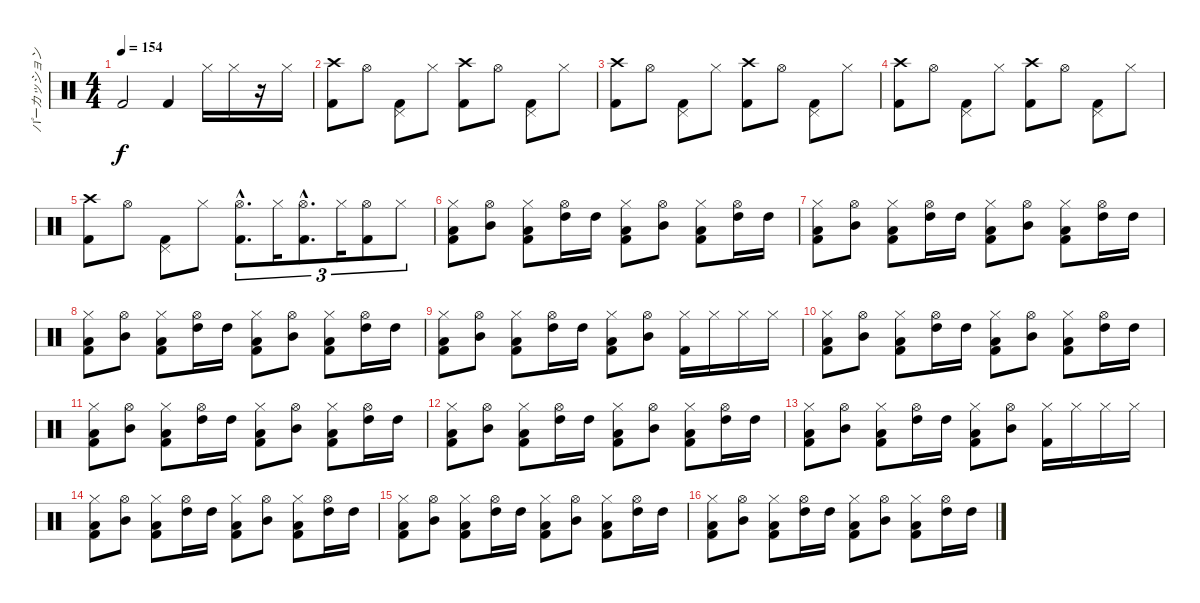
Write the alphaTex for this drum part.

\track ("パーカッション" "パーカッション") {instrument percussion}
\staff {score}
\articulation defaults
\ts (4 4)
\tempo 154
\clef neutral
\ks c "Kick (hit) 2".2{dy f} "Kick (hit) 2".4 "Hi-Hat (closed)".16 "Hi-Hat (closed)".16
r.16 "Hi-Hat (closed)".16 |
("Crash high (hit)" "Kick (hit) 2").8 "Hi-Hat (open)".8 ("Pedal Hi-Hat (hit)" "Kick (hit) 2").8 "Hi-Hat (closed)".8 ("Crash high (hit)" "Kick (hit) 2").8 "Hi-Hat (open)".8 ("Pedal Hi-Hat (hit)" "Kick (hit) 2").8 "Hi-Hat (closed)".8 |
("Crash high (hit)" "Kick (hit) 2").8 "Hi-Hat (open)".8 ("Pedal Hi-Hat (hit)" "Kick (hit) 2").8 "Hi-Hat (closed)".8 ("Crash high (hit)" "Kick (hit) 2").8 "Hi-Hat (open)".8 ("Pedal Hi-Hat (hit)" "Kick (hit) 2").8 "Hi-Hat (closed)".8 |
("Crash high (hit)" "Kick (hit) 2").8 "Hi-Hat (open)".8 ("Pedal Hi-Hat (hit)" "Kick (hit) 2").8 "Hi-Hat (closed)".8 ("Crash high (hit)" "Kick (hit) 2").8 "Hi-Hat (open)".8 ("Pedal Hi-Hat (hit)" "Kick (hit) 2").8 "Hi-Hat (closed)".8 |
("Crash high (hit)" "Kick (hit) 2").8 "Hi-Hat (open)".8 ("Pedal Hi-Hat (hit)" "Kick (hit) 2").8 "Hi-Hat (closed)".8 ("Hi-Hat (open)"{hac} "Kick (hit) 2"{hac}).8{d tu (3 2)} "Hi-Hat (closed)".16{tu (3 2)} ("Hi-Hat (open)"{hac} "Kick (hit) 2"{hac}).8{d tu (3 2)} "Hi-Hat (closed)".16{tu (3 2)} ("Hi-Hat (open)" "Kick (hit) 2").8{tu (3 2)} "Hi-Hat (closed)".8{tu (3 2)} |
("Hi-Hat (closed)" "Low Tom (hit)" "Kick (hit) 2").8 ("Hi-Hat (open)" "Mid Tom (hit)").8 ("Hi-Hat (closed)" "Low Tom (hit)" "Kick (hit) 2").8 ("Hi-Hat (open)" "High Tom (hit)").16 "High Tom (hit)".16 ("Hi-Hat (closed)" "Low Tom (hit)" "Kick (hit) 2").8 ("Hi-Hat (open)" "Mid Tom (hit)").8 ("Hi-Hat (closed)" "Low Tom (hit)" "Kick (hit) 2").8 ("Hi-Hat (open)" "High Tom (hit)").16 "High Tom (hit)".16 |
("Hi-Hat (closed)" "Low Tom (hit)" "Kick (hit) 2").8 ("Hi-Hat (open)" "Mid Tom (hit)").8 ("Hi-Hat (closed)" "Low Tom (hit)" "Kick (hit) 2").8 ("Hi-Hat (open)" "High Tom (hit)").16 "High Tom (hit)".16 ("Hi-Hat (closed)" "Low Tom (hit)" "Kick (hit) 2").8 ("Hi-Hat (open)" "Mid Tom (hit)").8 ("Hi-Hat (closed)" "Low Tom (hit)" "Kick (hit) 2").8 ("Hi-Hat (open)" "High Tom (hit)").16 "High Tom (hit)".16 |
("Hi-Hat (closed)" "Low Tom (hit)" "Kick (hit) 2").8 ("Hi-Hat (open)" "Mid Tom (hit)").8 ("Hi-Hat (closed)" "Low Tom (hit)" "Kick (hit) 2").8 ("Hi-Hat (open)" "High Tom (hit)").16 "High Tom (hit)".16 ("Hi-Hat (closed)" "Low Tom (hit)" "Kick (hit) 2").8 ("Hi-Hat (open)" "Mid Tom (hit)").8 ("Hi-Hat (closed)" "Low Tom (hit)" "Kick (hit) 2").8 ("Hi-Hat (open)" "High Tom (hit)").16 "High Tom (hit)".16 |
("Hi-Hat (closed)" "Low Tom (hit)" "Kick (hit) 2").8 ("Hi-Hat (open)" "Mid Tom (hit)").8 ("Hi-Hat (closed)" "Low Tom (hit)" "Kick (hit) 2").8 ("Hi-Hat (open)" "High Tom (hit)").16 "High Tom (hit)".16 ("Hi-Hat (closed)" "Low Tom (hit)" "Kick (hit) 2").8 ("Hi-Hat (open)" "Mid Tom (hit)").8 ("Hi-Hat (closed)" "Kick (hit) 2").16 "Hi-Hat (closed)".16 "Hi-Hat (closed)".16 "Hi-Hat (closed)".16 |
("Hi-Hat (closed)" "Low Tom (hit)" "Kick (hit) 2").8 ("Hi-Hat (open)" "Mid Tom (hit)").8 ("Hi-Hat (closed)" "Low Tom (hit)" "Kick (hit) 2").8 ("Hi-Hat (open)" "High Tom (hit)").16 "High Tom (hit)".16 ("Hi-Hat (closed)" "Low Tom (hit)" "Kick (hit) 2").8 ("Hi-Hat (open)" "Mid Tom (hit)").8 ("Hi-Hat (closed)" "Low Tom (hit)" "Kick (hit) 2").8 ("Hi-Hat (open)" "High Tom (hit)").16 "High Tom (hit)".16 |
("Hi-Hat (closed)" "Low Tom (hit)" "Kick (hit) 2").8 ("Hi-Hat (open)" "Mid Tom (hit)").8 ("Hi-Hat (closed)" "Low Tom (hit)" "Kick (hit) 2").8 ("Hi-Hat (open)" "High Tom (hit)").16 "High Tom (hit)".16 ("Hi-Hat (closed)" "Low Tom (hit)" "Kick (hit) 2").8 ("Hi-Hat (open)" "Mid Tom (hit)").8 ("Hi-Hat (closed)" "Low Tom (hit)" "Kick (hit) 2").8 ("Hi-Hat (open)" "High Tom (hit)").16 "High Tom (hit)".16 |
("Hi-Hat (closed)" "Low Tom (hit)" "Kick (hit) 2").8 ("Hi-Hat (open)" "Mid Tom (hit)").8 ("Hi-Hat (closed)" "Low Tom (hit)" "Kick (hit) 2").8 ("Hi-Hat (open)" "High Tom (hit)").16 "High Tom (hit)".16 ("Hi-Hat (closed)" "Low Tom (hit)" "Kick (hit) 2").8 ("Hi-Hat (open)" "Mid Tom (hit)").8 ("Hi-Hat (closed)" "Low Tom (hit)" "Kick (hit) 2").8 ("Hi-Hat (open)" "High Tom (hit)").16 "High Tom (hit)".16 |
("Hi-Hat (closed)" "Low Tom (hit)" "Kick (hit) 2").8 ("Hi-Hat (open)" "Mid Tom (hit)").8 ("Hi-Hat (closed)" "Low Tom (hit)" "Kick (hit) 2").8 ("Hi-Hat (open)" "High Tom (hit)").16 "High Tom (hit)".16 ("Hi-Hat (closed)" "Low Tom (hit)" "Kick (hit) 2").8 ("Hi-Hat (open)" "Mid Tom (hit)").8 ("Hi-Hat (closed)" "Kick (hit) 2").16 "Hi-Hat (closed)".16 "Hi-Hat (closed)".16 "Hi-Hat (closed)".16 |
("Hi-Hat (closed)" "Low Tom (hit)" "Kick (hit) 2").8 ("Hi-Hat (open)" "Mid Tom (hit)").8 ("Hi-Hat (closed)" "Low Tom (hit)" "Kick (hit) 2").8 ("Hi-Hat (open)" "High Tom (hit)").16 "High Tom (hit)".16 ("Hi-Hat (closed)" "Low Tom (hit)" "Kick (hit) 2").8 ("Hi-Hat (open)" "Mid Tom (hit)").8 ("Hi-Hat (closed)" "Low Tom (hit)" "Kick (hit) 2").8 ("Hi-Hat (open)" "High Tom (hit)").16 "High Tom (hit)".16 |
("Hi-Hat (closed)" "Low Tom (hit)" "Kick (hit) 2").8 ("Hi-Hat (open)" "Mid Tom (hit)").8 ("Hi-Hat (closed)" "Low Tom (hit)" "Kick (hit) 2").8 ("Hi-Hat (open)" "High Tom (hit)").16 "High Tom (hit)".16 ("Hi-Hat (closed)" "Low Tom (hit)" "Kick (hit) 2").8 ("Hi-Hat (open)" "Mid Tom (hit)").8 ("Hi-Hat (closed)" "Low Tom (hit)" "Kick (hit) 2").8 ("Hi-Hat (open)" "High Tom (hit)").16 "High Tom (hit)".16 |
("Hi-Hat (closed)" "Low Tom (hit)" "Kick (hit) 2").8 ("Hi-Hat (open)" "Mid Tom (hit)").8 ("Hi-Hat (closed)" "Low Tom (hit)" "Kick (hit) 2").8 ("Hi-Hat (open)" "High Tom (hit)").16 "High Tom (hit)".16 ("Hi-Hat (closed)" "Low Tom (hit)" "Kick (hit) 2").8 ("Hi-Hat (open)" "Mid Tom (hit)").8 ("Hi-Hat (closed)" "Low Tom (hit)" "Kick (hit) 2").8 ("Hi-Hat (open)" "High Tom (hit)").16 "High Tom (hit)".16
